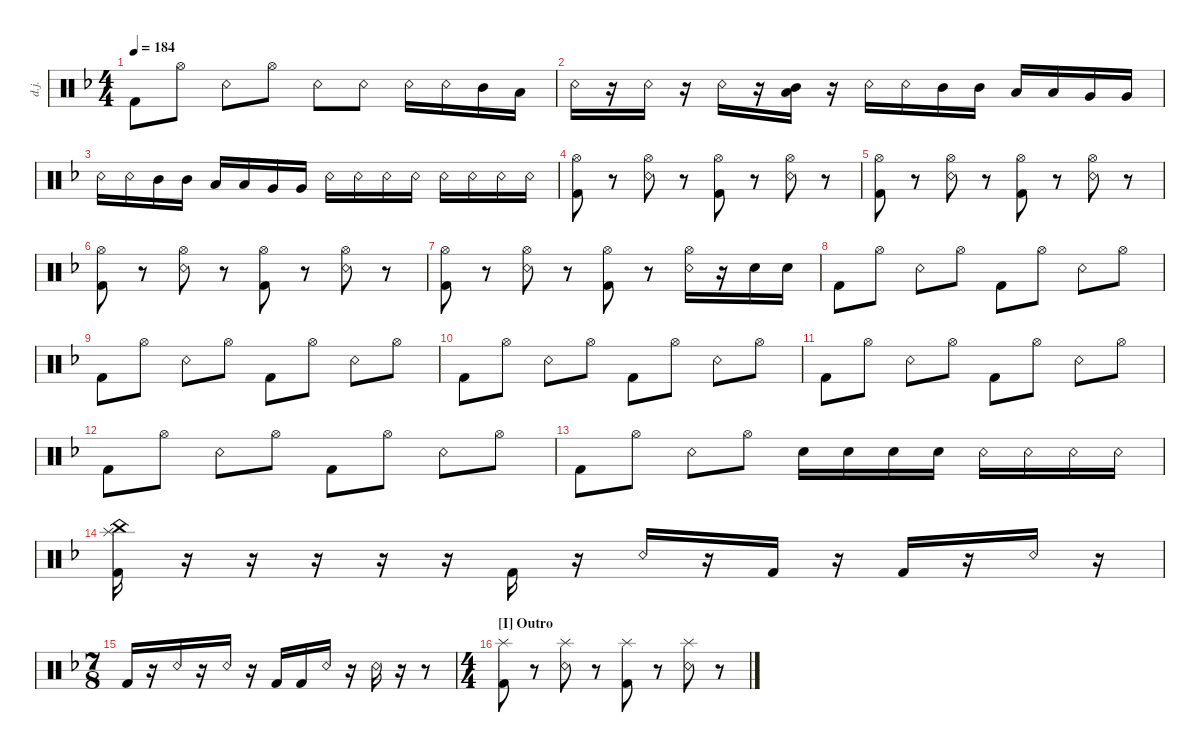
\defaultSystemsLayout 4
\hideDynamics
\bracketExtendMode nobrackets
\otherSystemsTrackNameOrientation horizontal
\track ("Drumkit Jason" "d.j.") {instrument percussion}
\staff {score}
\articulation defaults
\ts (4 4)
\tempo 184
\clef neutral
\ks dminor "Kick (hit) 2"{acc forcenatural}.8{dy ff beam Down} "Hi-Hat (open)"{acc forcenatural}.8{beam Down} "Snare (rim shot)"{acc forcenatural}.8{beam Down} "Hi-Hat (open)"{acc forcenatural}.8{beam Down} "Snare (rim shot)"{acc forcenatural}.8{beam Down} "Snare (rim shot)"{acc forcenatural}.8{beam Down} "Snare (rim shot)"{acc forcenatural}.16{beam Down} "Snare (rim shot)"{acc forcenatural}.16{beam Down} "Mid Tom (hit)"{acc forcenatural}.16{beam Down} "Low Tom (hit)"{acc forcenatural}.16{beam Down}
|
"Snare (rim shot)"{acc forcenatural}.16{beam Down} r.16{beam Down} "Snare (rim shot)"{acc forcenatural}.16{beam Down} r.16{beam Down} "Snare (rim shot)"{acc forcenatural}.16{beam Down} r.16{beam Down} ("Mid Tom (hit)"{acc forcenatural} "Low Tom (hit)"{acc forcenatural}).16{beam Down} r.16{beam Down} "Snare (rim shot)"{acc forcenatural}.16{beam Down} "Snare (rim shot)"{acc forcenatural}.16{beam Down} "Mid Tom (hit)"{acc forcenatural}.16{beam Down} "Mid Tom (hit)"{acc forcenatural}.16{beam Down} "Low Tom (hit)"{acc forcenatural}.16{beam Up} "Low Tom (hit)"{acc forcenatural}.16{beam Up} "Very Low Tom (hit)"{acc forcenatural}.16{beam Up} "Very Low Tom (hit)"{acc forcenatural}.16{beam Up} |
"Snare (rim shot)"{acc forcenatural}.16{beam Down} "Snare (rim shot)"{acc forcenatural}.16{beam Down} "Mid Tom (hit)"{acc forcenatural}.16{beam Down} "Mid Tom (hit)"{acc forcenatural}.16{beam Down} "Low Tom (hit)"{acc forcenatural}.16{beam Up} "Low Tom (hit)"{acc forcenatural}.16{beam Up} "Very Low Tom (hit)"{acc forcenatural}.16{beam Up} "Very Low Tom (hit)"{acc forcenatural}.16{beam Up} "Snare (rim shot)"{acc forcenatural}.16{beam Down} "Snare (rim shot)"{acc forcenatural}.16{beam Down} "Snare (rim shot)"{acc forcenatural}.16{beam Down} "Snare (rim shot)"{acc forcenatural}.16{beam Down} "Snare (rim shot)"{acc forcenatural}.16{beam Down} "Snare (rim shot)"{acc forcenatural}.16{beam Down} "Snare (rim shot)"{acc forcenatural}.16{beam Down} "Snare (rim shot)"{acc forcenatural}.16{beam Down} |
("Hi-Hat (open)"{acc forcenatural} "Kick (hit) 2"{acc forcenatural}).8{beam Down} r.8{beam Down} ("Hi-Hat (open)"{acc forcenatural} "Snare (rim shot)"{acc forcenatural}).8{beam Down} r.8{beam Down} ("Hi-Hat (open)"{acc forcenatural} "Kick (hit) 2"{acc forcenatural}).8{beam Down} r.8{beam Down} ("Hi-Hat (open)"{acc forcenatural} "Snare (rim shot)"{acc forcenatural}).8{beam Down} r.8{beam Down} |
("Hi-Hat (open)"{acc forcenatural} "Kick (hit) 2"{acc forcenatural}).8{beam Down} r.8{beam Down} ("Hi-Hat (open)"{acc forcenatural} "Snare (rim shot)"{acc forcenatural}).8{beam Down} r.8{beam Down} ("Hi-Hat (open)"{acc forcenatural} "Kick (hit) 2"{acc forcenatural}).8{beam Down} r.8{beam Down} ("Hi-Hat (open)"{acc forcenatural} "Snare (rim shot)"{acc forcenatural}).8{beam Down} r.8{beam Down} |
("Hi-Hat (open)"{acc forcenatural} "Kick (hit) 2"{acc forcenatural}).8{beam Down} r.8{beam Down} ("Hi-Hat (open)"{acc forcenatural} "Snare (rim shot)"{acc forcenatural}).8{beam Down} r.8{beam Down} ("Hi-Hat (open)"{acc forcenatural} "Kick (hit) 2"{acc forcenatural}).8{beam Down} r.8{beam Down} ("Hi-Hat (open)"{acc forcenatural} "Snare (rim shot)"{acc forcenatural}).8{beam Down} r.8{beam Down} |
("Hi-Hat (open)"{acc forcenatural} "Kick (hit) 2"{acc forcenatural}).8{beam Down} r.8{beam Down} ("Hi-Hat (open)"{acc forcenatural} "Snare (rim shot)"{acc forcenatural}).8{beam Down} r.8{beam Down} ("Hi-Hat (open)"{acc forcenatural} "Kick (hit) 2"{acc forcenatural}).8{beam Down} r.8{beam Down} ("Hi-Hat (open)"{acc forcenatural} "Snare (rim shot)"{acc forcenatural}).16{beam Down} r.16{beam Down} "Snare (hit) 2"{acc forcenatural}.16{beam Down} "Snare (hit) 2"{acc forcenatural}.16{beam Down} |
"Kick (hit) 2"{acc forcenatural}.8{beam Down} "Hi-Hat (open)"{acc forcenatural}.8{beam Down} "Snare (rim shot)"{acc forcenatural}.8{beam Down} "Hi-Hat (open)"{acc forcenatural}.8{beam Down} "Kick (hit) 2"{acc forcenatural}.8{beam Down} "Hi-Hat (open)"{acc forcenatural}.8{beam Down} "Snare (rim shot)"{acc forcenatural}.8{beam Down} "Hi-Hat (open)"{acc forcenatural}.8{beam Down} |
"Kick (hit) 2"{acc forcenatural}.8{beam Down} "Hi-Hat (open)"{acc forcenatural}.8{beam Down} "Snare (rim shot)"{acc forcenatural}.8{beam Down} "Hi-Hat (open)"{acc forcenatural}.8{beam Down} "Kick (hit) 2"{acc forcenatural}.8{beam Down} "Hi-Hat (open)"{acc forcenatural}.8{beam Down} "Snare (rim shot)"{acc forcenatural}.8{beam Down} "Hi-Hat (open)"{acc forcenatural}.8{beam Down} |
"Kick (hit) 2"{acc forcenatural}.8{beam Down} "Hi-Hat (open)"{acc forcenatural}.8{beam Down} "Snare (rim shot)"{acc forcenatural}.8{beam Down} "Hi-Hat (open)"{acc forcenatural}.8{beam Down} "Kick (hit) 2"{acc forcenatural}.8{beam Down} "Hi-Hat (open)"{acc forcenatural}.8{beam Down} "Snare (rim shot)"{acc forcenatural}.8{beam Down} "Hi-Hat (open)"{acc forcenatural}.8{beam Down} |
"Kick (hit) 2"{acc forcenatural}.8{beam Down} "Hi-Hat (open)"{acc forcenatural}.8{beam Down} "Snare (rim shot)"{acc forcenatural}.8{beam Down} "Hi-Hat (open)"{acc forcenatural}.8{beam Down} "Kick (hit) 2"{acc forcenatural}.8{beam Down} "Hi-Hat (open)"{acc forcenatural}.8{beam Down} "Snare (rim shot)"{acc forcenatural}.8{beam Down} "Hi-Hat (open)"{acc forcenatural}.8{beam Down} |
"Kick (hit) 2"{acc forcenatural}.8{beam Down} "Hi-Hat (open)"{acc forcenatural}.8{beam Down} "Snare (rim shot)"{acc forcenatural}.8{beam Down} "Hi-Hat (open)"{acc forcenatural}.8{beam Down} "Kick (hit) 2"{acc forcenatural}.8{beam Down} "Hi-Hat (open)"{acc forcenatural}.8{beam Down} "Snare (rim shot)"{acc forcenatural}.8{beam Down} "Hi-Hat (open)"{acc forcenatural}.8{beam Down} |
"Kick (hit) 2"{acc forcenatural}.8{beam Down} "Hi-Hat (open)"{acc forcenatural}.8{beam Down} "Snare (rim shot)"{acc forcenatural}.8{beam Down} "Hi-Hat (open)"{acc forcenatural}.8{beam Down} "Snare (hit) 2"{acc forcenatural}.16{beam Down} "Snare (hit) 2"{acc forcenatural}.16{beam Down} "Snare (hit) 2"{acc forcenatural}.16{beam Down} "Snare (hit) 2"{acc forcenatural}.16{beam Down} "Snare (rim shot)"{acc forcenatural}.16{beam Down} "Snare (rim shot)"{acc forcenatural}.16{beam Down} "Snare (rim shot)"{acc forcenatural}.16{beam Down} "Snare (rim shot)"{acc forcenatural}.16{beam Down} |
("Splash (hit)"{acc forcenatural} "China (hit)"{acc forcenatural} "Kick (hit) 2"{acc forcenatural}).16{beam Down} r.16{beam Down} r.16{beam Down} r.16{beam Down} r.16{beam Down} r.16{beam Down} "Kick (hit) 2"{acc forcenatural}.16{beam Up} r.16{beam Up} "Snare (rim shot)"{acc forcenatural}.16{beam Up} r.16{beam Up} "Kick (hit) 2"{acc forcenatural}.16{beam Up} r.16{beam Up} "Kick (hit) 2"{acc forcenatural}.16{beam Up} r.16{beam Up} "Snare (rim shot)"{acc forcenatural}.16{beam Up} r.16{beam Up} |
\ts (7 8)
\beaming (8 3 2 2)
"Kick (hit) 2"{acc forcenatural}.16{beam Up} r.16{beam Up} "Snare (rim shot)"{acc forcenatural}.16{beam Up} r.16{beam Up} "Snare (rim shot)"{acc forcenatural}.16{beam Up} r.16{beam Up} "Kick (hit) 2"{acc forcenatural}.16{beam Up} "Kick (hit) 2"{acc forcenatural}.16{beam Up} "Snare (rim shot)"{acc forcenatural}.16{beam Up} r.16{beam Up} "Snare (rim shot)"{acc forcenatural}.16{beam Down} r.16{beam Down} r.8{beam Down} |
\ts (4 4)
\beaming (8 2 2 2 2)
\section ("I" "Outro")
("Kick (hit) 2"{acc forcenatural} "Splash (hit)"{acc forcenatural}).8{beam Down} r.8{beam Down} ("Snare (rim shot)"{acc forcenatural} "Splash (hit)"{acc forcenatural}).8{beam Down} r.8{beam Down} ("Kick (hit) 2"{acc forcenatural} "Splash (hit)"{acc forcenatural}).8{beam Down} r.8{beam Down} ("Splash (hit)"{acc forcenatural} "Snare (rim shot)"{acc forcenatural}).8{beam Down} r.8{beam Down}
